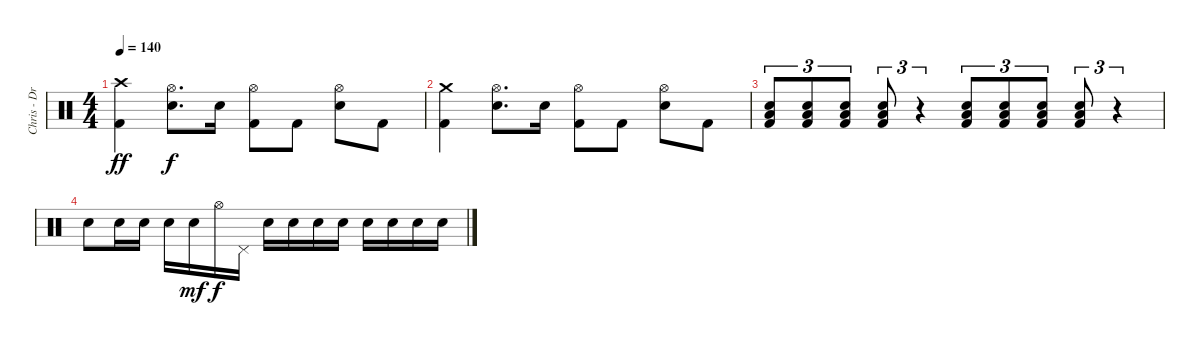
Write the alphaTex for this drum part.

\track ("Chris - Drums" "Chris - Dr") {instrument percussion}
\staff {score}
\articulation defaults
\ts (4 4)
\tempo 140
\clef neutral
\ks c
("Crash high (hit)" "Kick (hit) 2").4{dy ff} ("Hi-Hat (open)" "Electric Snare (hit)").8{d dy f} "Electric Snare (hit)".16 ("Hi-Hat (open)" "Kick (hit) 2").8 "Kick (hit) 2".8 ("Hi-Hat (open)" "Electric Snare (hit)").8 "Kick (hit) 2".8 |
("Crash medium (hit)" "Kick (hit) 2").4 ("Hi-Hat (open)" "Electric Snare (hit)").8{d} "Electric Snare (hit)".16 ("Hi-Hat (open)" "Kick (hit) 2").8 "Kick (hit) 2".8 ("Hi-Hat (open)" "Electric Snare (hit)").8 "Kick (hit) 2".8 |
("Low Tom (hit)" "Electric Snare (hit)" "Kick (hit) 2").8{tu (3 2)} ("Low Tom (hit)" "Electric Snare (hit)" "Kick (hit) 2").8{tu (3 2)} ("Low Tom (hit)" "Electric Snare (hit)" "Kick (hit) 2").8{tu (3 2)} ("Low Tom (hit)" "Electric Snare (hit)" "Kick (hit) 2").8{tu (3 2)} r.4{tu (3 2)} ("Low Tom (hit)" "Electric Snare (hit)" "Kick (hit) 2").8{tu (3 2)} ("Low Tom (hit)" "Electric Snare (hit)" "Kick (hit) 2").8{tu (3 2)} ("Low Tom (hit)" "Electric Snare (hit)" "Kick (hit) 2").8{tu (3 2)} ("Low Tom (hit)" "Electric Snare (hit)" "Kick (hit) 2").8{tu (3 2)} r.4{tu (3 2)} |
"Electric Snare (hit)".8 "Electric Snare (hit)".16 "Electric Snare (hit)".16 "Electric Snare (hit)".16 "Electric Snare (hit)".16{dy mf} "Hi-Hat (open)".16{dy f} "Pedal Hi-Hat (hit)".16 "Electric Snare (hit)".16 "Electric Snare (hit)".16 "Electric Snare (hit)".16 "Electric Snare (hit)".16 "Electric Snare (hit)".16 "Electric Snare (hit)".16 "Electric Snare (hit)".16 "Electric Snare (hit)".16
